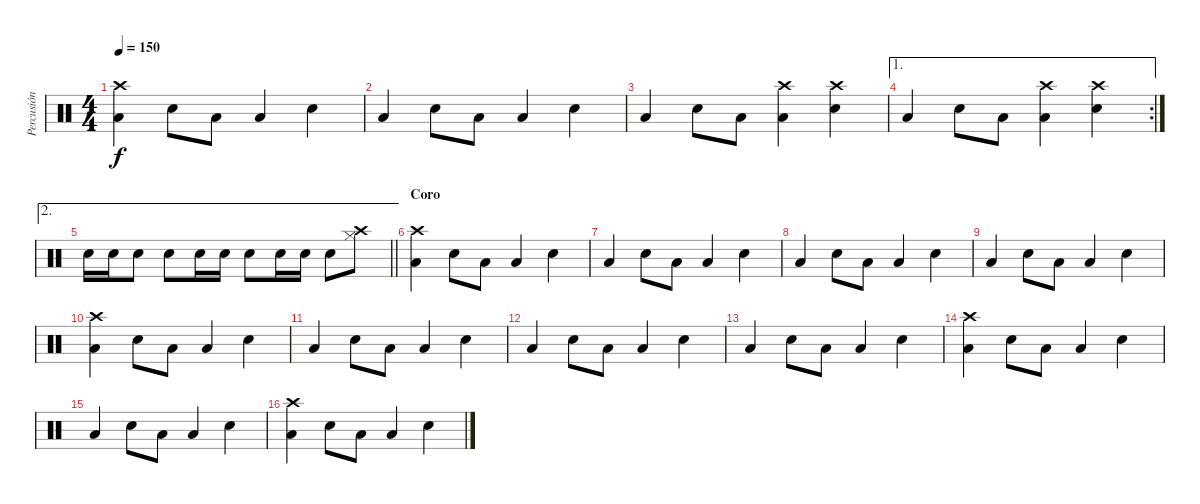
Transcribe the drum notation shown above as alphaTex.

\track ("Percusión" "Percusión") {instrument percussion}
\staff {score}
\articulation defaults
\ts (4 4)
\tempo 150
\clef neutral
\ks c
("Low Floor Tom (hit)" "Crash high (hit)").4{dy f} "Electric Snare (hit)".8 "Low Floor Tom (hit)".8 "Low Floor Tom (hit)".4 "Electric Snare (hit)".4 |
"Low Floor Tom (hit)".4 "Electric Snare (hit)".8 "Low Floor Tom (hit)".8 "Low Floor Tom (hit)".4 "Electric Snare (hit)".4 |
"Low Floor Tom (hit)".4 "Electric Snare (hit)".8 "Low Floor Tom (hit)".8 ("Low Floor Tom (hit)" "Crash high (hit)").4 ("Electric Snare (hit)" "Crash high (hit)").4 |
\ae 1
\rc 2 "Low Floor Tom (hit)".4 "Electric Snare (hit)".8 "Low Floor Tom (hit)".8
("Low Floor Tom (hit)" "Crash high (hit)").4 ("Electric Snare (hit)" "Crash high (hit)").4 |
\ae 2
\barLineRight lightlight "Electric Snare (hit)".16 "Electric Snare (hit)".16 "Electric Snare (hit)".8 "Electric Snare (hit)".8 "Electric Snare (hit)".16 "Electric Snare (hit)".16 "Electric Snare (hit)".8 "Electric Snare (hit)".16 "Electric Snare (hit)".16 "Electric Snare (hit)".8
("Hi-Hat (closed)" "Crash high (hit)").8 |
\section ("" "Coro")
("Low Floor Tom (hit)" "Crash high (hit)").4 "Electric Snare (hit)".8 "Low Floor Tom (hit)".8 "Low Floor Tom (hit)".4 "Electric Snare (hit)".4 |
"Low Floor Tom (hit)".4 "Electric Snare (hit)".8 "Low Floor Tom (hit)".8 "Low Floor Tom (hit)".4 "Electric Snare (hit)".4 |
"Low Floor Tom (hit)".4 "Electric Snare (hit)".8 "Low Floor Tom (hit)".8 "Low Floor Tom (hit)".4 "Electric Snare (hit)".4 |
"Low Floor Tom (hit)".4 "Electric Snare (hit)".8 "Low Floor Tom (hit)".8 "Low Floor Tom (hit)".4 "Electric Snare (hit)".4 |
("Low Floor Tom (hit)" "Crash high (hit)").4 "Electric Snare (hit)".8 "Low Floor Tom (hit)".8 "Low Floor Tom (hit)".4 "Electric Snare (hit)".4 |
"Low Floor Tom (hit)".4 "Electric Snare (hit)".8 "Low Floor Tom (hit)".8 "Low Floor Tom (hit)".4 "Electric Snare (hit)".4 |
"Low Floor Tom (hit)".4 "Electric Snare (hit)".8 "Low Floor Tom (hit)".8 "Low Floor Tom (hit)".4 "Electric Snare (hit)".4 |
"Low Floor Tom (hit)".4 "Electric Snare (hit)".8 "Low Floor Tom (hit)".8 "Low Floor Tom (hit)".4 "Electric Snare (hit)".4 |
("Low Floor Tom (hit)" "Crash high (hit)").4 "Electric Snare (hit)".8 "Low Floor Tom (hit)".8 "Low Floor Tom (hit)".4 "Electric Snare (hit)".4 |
"Low Floor Tom (hit)".4 "Electric Snare (hit)".8 "Low Floor Tom (hit)".8 "Low Floor Tom (hit)".4 "Electric Snare (hit)".4 |
("Low Floor Tom (hit)" "Crash high (hit)").4 "Electric Snare (hit)".8 "Low Floor Tom (hit)".8 "Low Floor Tom (hit)".4 "Electric Snare (hit)".4
